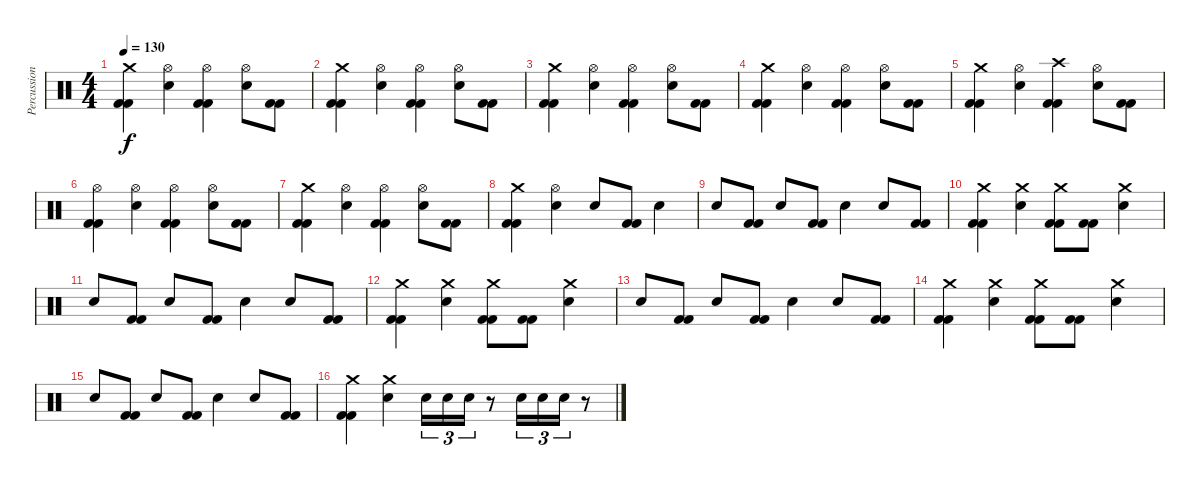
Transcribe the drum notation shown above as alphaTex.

\track ("Percussion" "Percussion") {instrument percussion}
\staff {score}
\articulation defaults
\ts (4 4)
\tempo 130
\clef neutral
\ks c
("Crash medium (hit)" "Kick (hit) 2" "Kick (hit) 2").4{dy f} ("Hi-Hat (open)" "Snare (hit) 2").4 ("Hi-Hat (open)" "Kick (hit) 2" "Kick (hit) 2").4 ("Hi-Hat (open)" "Snare (hit) 2").8 ("Kick (hit) 2" "Kick (hit) 2").8 |
("Crash medium (hit)" "Kick (hit) 2" "Kick (hit) 2").4 ("Hi-Hat (open)" "Snare (hit) 2").4 ("Hi-Hat (open)" "Kick (hit) 2" "Kick (hit) 2").4 ("Hi-Hat (open)" "Snare (hit) 2").8 ("Kick (hit) 2" "Kick (hit) 2").8 |
("Crash medium (hit)" "Kick (hit) 2" "Kick (hit) 2").4 ("Hi-Hat (open)" "Snare (hit) 2").4 ("Hi-Hat (open)" "Kick (hit) 2" "Kick (hit) 2").4 ("Hi-Hat (open)" "Snare (hit) 2").8 ("Kick (hit) 2" "Kick (hit) 2").8 |
("Crash medium (hit)" "Kick (hit) 2" "Kick (hit) 2").4 ("Hi-Hat (open)" "Snare (hit) 2").4 ("Hi-Hat (open)" "Kick (hit) 2" "Kick (hit) 2").4 ("Hi-Hat (open)" "Snare (hit) 2").8 ("Kick (hit) 2" "Kick (hit) 2").8 |
("Crash medium (hit)" "Kick (hit) 2" "Kick (hit) 2").4 ("Hi-Hat (open)" "Snare (hit) 2").4 ("Crash high (hit)" "Kick (hit) 2" "Kick (hit) 2").4 ("Hi-Hat (open)" "Snare (hit) 2").8 ("Kick (hit) 2" "Kick (hit) 2").8 |
("Hi-Hat (open)" "Kick (hit) 2" "Kick (hit) 2").4 ("Hi-Hat (open)" "Snare (hit) 2").4 ("Hi-Hat (open)" "Kick (hit) 2" "Kick (hit) 2").4 ("Hi-Hat (open)" "Snare (hit) 2").8 ("Kick (hit) 2" "Kick (hit) 2").8 |
("Crash medium (hit)" "Kick (hit) 2" "Kick (hit) 2").4 ("Hi-Hat (open)" "Snare (hit) 2").4 ("Hi-Hat (open)" "Kick (hit) 2" "Kick (hit) 2").4 ("Hi-Hat (open)" "Snare (hit) 2").8 ("Kick (hit) 2" "Kick (hit) 2").8 |
("Crash medium (hit)" "Kick (hit) 2" "Kick (hit) 2").4 ("Hi-Hat (open)" "Snare (hit) 2").4 "Snare (hit) 2".8 ("Kick (hit) 2" "Kick (hit) 2").8 "Snare (hit) 2".4 |
"Snare (hit) 2".8 ("Kick (hit) 2" "Kick (hit) 2").8 "Snare (hit) 2".8 ("Kick (hit) 2" "Kick (hit) 2").8 "Snare (hit) 2".4 "Snare (hit) 2".8 ("Kick (hit) 2" "Kick (hit) 2").8 |
("Crash medium (hit)" "Kick (hit) 2" "Kick (hit) 2").4 ("Crash medium (hit)" "Snare (hit) 2").4 ("Crash medium (hit)" "Kick (hit) 2" "Kick (hit) 2").8 ("Kick (hit) 2" "Kick (hit) 2").8 ("Crash medium (hit)" "Snare (hit) 2").4 |
"Snare (hit) 2".8 ("Kick (hit) 2" "Kick (hit) 2").8 "Snare (hit) 2".8 ("Kick (hit) 2" "Kick (hit) 2").8 "Snare (hit) 2".4 "Snare (hit) 2".8 ("Kick (hit) 2" "Kick (hit) 2").8 |
("Crash medium (hit)" "Kick (hit) 2" "Kick (hit) 2").4 ("Crash medium (hit)" "Snare (hit) 2").4 ("Crash medium (hit)" "Kick (hit) 2" "Kick (hit) 2").8 ("Kick (hit) 2" "Kick (hit) 2").8 ("Crash medium (hit)" "Snare (hit) 2").4 |
"Snare (hit) 2".8 ("Kick (hit) 2" "Kick (hit) 2").8 "Snare (hit) 2".8 ("Kick (hit) 2" "Kick (hit) 2").8 "Snare (hit) 2".4 "Snare (hit) 2".8 ("Kick (hit) 2" "Kick (hit) 2").8 |
("Crash medium (hit)" "Kick (hit) 2" "Kick (hit) 2").4 ("Crash medium (hit)" "Snare (hit) 2").4 ("Crash medium (hit)" "Kick (hit) 2" "Kick (hit) 2").8 ("Kick (hit) 2" "Kick (hit) 2").8 ("Crash medium (hit)" "Snare (hit) 2").4 |
"Snare (hit) 2".8 ("Kick (hit) 2" "Kick (hit) 2").8 "Snare (hit) 2".8 ("Kick (hit) 2" "Kick (hit) 2").8 "Snare (hit) 2".4 "Snare (hit) 2".8 ("Kick (hit) 2" "Kick (hit) 2").8 |
("Crash medium (hit)" "Kick (hit) 2" "Kick (hit) 2").4 ("Crash medium (hit)" "Snare (hit) 2").4 "Snare (hit) 2".16{tu (3 2)} "Snare (hit) 2".16{tu (3 2)} "Snare (hit) 2".16{tu (3 2)} r.8 "Snare (hit) 2".16{tu (3 2)} "Snare (hit) 2".16{tu (3 2)} "Snare (hit) 2".16{tu (3 2)} r.8
